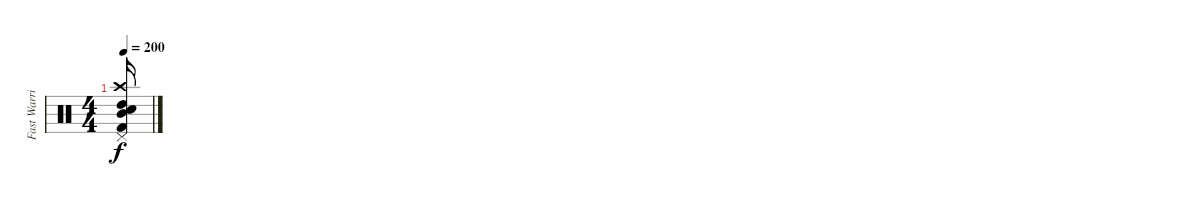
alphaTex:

\track ("Fast Warrior" "Fast Warri") {instrument percussion}
\staff {score}
\articulation defaults
\ts (4 4)
\tempo 200
\clef neutral
\ks c
("Pedal Hi-Hat (hit)" "Mid Tom (hit)" "High Tom (hit)" "Crash high (hit)" "Electric Snare (hit)" "Kick (hit) 2").16{dy f}
